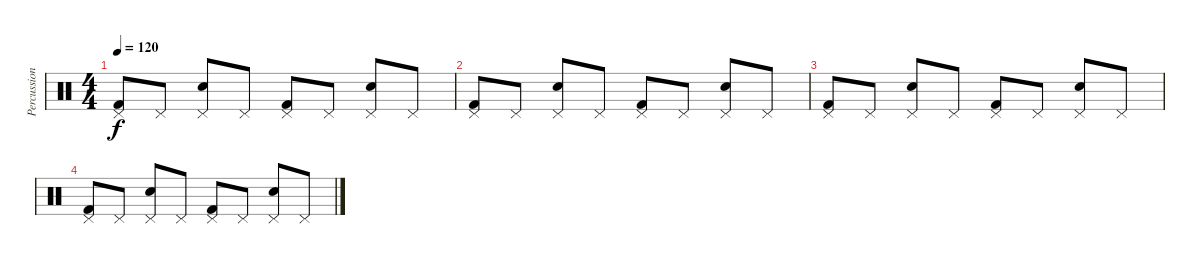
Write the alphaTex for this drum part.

\track ("Percussions" "Percussion") {instrument percussion}
\staff {score}
\articulation defaults
\ts (4 4)
\tempo 120
\clef neutral
\ks c
("Pedal Hi-Hat (hit)" "Kick (hit) 2").8{dy f} "Pedal Hi-Hat (hit)".8 ("Pedal Hi-Hat (hit)" "Snare (hit) 2").8 "Pedal Hi-Hat (hit)".8 ("Pedal Hi-Hat (hit)" "Kick (hit) 2").8 "Pedal Hi-Hat (hit)".8 ("Pedal Hi-Hat (hit)" "Snare (hit) 2").8 "Pedal Hi-Hat (hit)".8 |
("Pedal Hi-Hat (hit)" "Kick (hit) 2").8 "Pedal Hi-Hat (hit)".8 ("Pedal Hi-Hat (hit)" "Snare (hit) 2").8 "Pedal Hi-Hat (hit)".8 ("Pedal Hi-Hat (hit)" "Kick (hit) 2").8 "Pedal Hi-Hat (hit)".8 ("Pedal Hi-Hat (hit)" "Snare (hit) 2").8 "Pedal Hi-Hat (hit)".8 |
("Pedal Hi-Hat (hit)" "Kick (hit) 2").8 "Pedal Hi-Hat (hit)".8 ("Pedal Hi-Hat (hit)" "Snare (hit) 2").8 "Pedal Hi-Hat (hit)".8 ("Pedal Hi-Hat (hit)" "Kick (hit) 2").8 "Pedal Hi-Hat (hit)".8 ("Pedal Hi-Hat (hit)" "Snare (hit) 2").8 "Pedal Hi-Hat (hit)".8 |
("Pedal Hi-Hat (hit)" "Kick (hit) 2").8 "Pedal Hi-Hat (hit)".8 ("Pedal Hi-Hat (hit)" "Snare (hit) 2").8 "Pedal Hi-Hat (hit)".8 ("Pedal Hi-Hat (hit)" "Kick (hit) 2").8 "Pedal Hi-Hat (hit)".8 ("Pedal Hi-Hat (hit)" "Snare (hit) 2").8 "Pedal Hi-Hat (hit)".8
